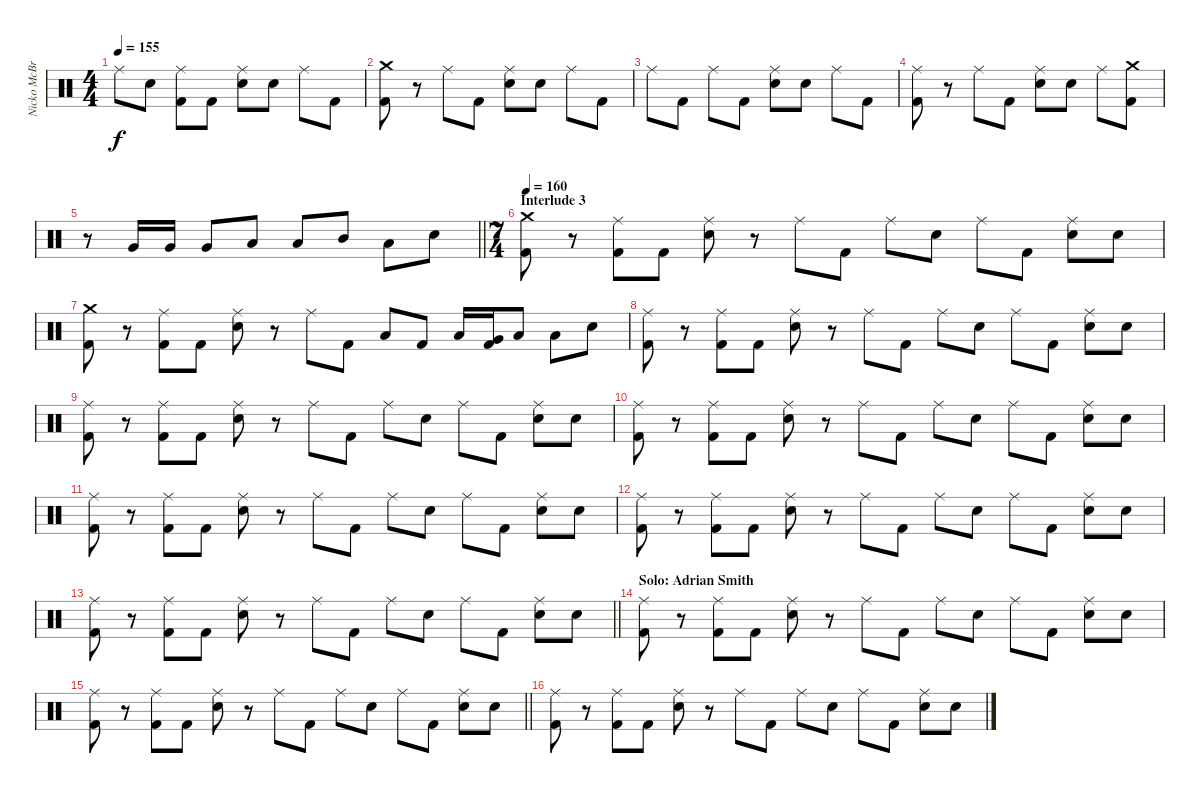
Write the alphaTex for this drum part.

\track ("Nicko McBrain" "Nicko McBr") {instrument percussion}
\staff {score}
\articulation defaults
\ts (4 4)
\tempo 155
\clef neutral
\ks c "Ride (middle)".8{dy f} "Snare (hit) 2".8
("Ride (middle)" "Kick (hit) 2").8 "Kick (hit) 2".8 ("Ride (middle)" "Snare (hit) 2").8 "Snare (hit) 2".8 "Ride (middle)".8 "Kick (hit) 2".8 |
("Crash medium (hit)" "Kick (hit) 2").8 r.8 "Ride (middle)".8 "Kick (hit) 2".8 ("Ride (middle)" "Snare (hit) 2").8 "Snare (hit) 2".8 "Ride (middle)".8 "Kick (hit) 2".8 |
"Ride (middle)".8 "Kick (hit) 2".8 "Ride (middle)".8 "Kick (hit) 2".8 ("Ride (middle)" "Snare (hit) 2").8 "Snare (hit) 2".8 "Ride (middle)".8 "Kick (hit) 2".8 |
("Ride (middle)" "Kick (hit) 2").8 r.8 "Ride (middle)".8 "Kick (hit) 2".8 ("Ride (middle)" "Snare (hit) 2").8 "Snare (hit) 2".8 "Ride (middle)".8 ("Crash medium (hit)" "Kick (hit) 2").8 |
\barLineRight lightlight
r.8 "Very Low Tom (hit)".16 "Very Low Tom (hit)".16 "Very Low Tom (hit)".8 "Low Tom (hit)".8 "Low Tom (hit)".8 "Mid Tom (hit)".8 "Low Tom (hit)".8 "Snare (hit) 2".8 |
\ts (7 4)
\section ("" "Interlude 3")
\tempo 160
("Crash medium (hit)" "Kick (hit) 2").8 r.8 ("Ride (middle)" "Kick (hit) 2").8 "Kick (hit) 2".8 ("Ride (middle)" "Snare (hit) 2").8 r.8 "Ride (middle)".8 "Kick (hit) 2".8 "Ride (middle)".8 "Snare (hit) 2".8 "Ride (middle)".8 "Kick (hit) 2".8 ("Ride (middle)" "Snare (hit) 2").8 "Snare (hit) 2".8 |
("Crash medium (hit)" "Kick (hit) 2").8 r.8 ("Ride (middle)" "Kick (hit) 2").8 "Kick (hit) 2".8 ("Ride (middle)" "Snare (hit) 2").8 r.8 "Ride (middle)".8 "Kick (hit) 2".8 "Low Tom (hit)".8 "Kick (hit) 2".8 "Low Tom (hit)".16 ("Very Low Tom (hit)" "Kick (hit) 2").16 "Low Floor Tom (hit)".8 "Low Floor Tom (hit)".8 "Snare (hit) 2".8 |
("Ride (middle)" "Kick (hit) 2").8 r.8 ("Ride (middle)" "Kick (hit) 2").8 "Kick (hit) 2".8 ("Ride (middle)" "Snare (hit) 2").8 r.8 "Ride (middle)".8 "Kick (hit) 2".8 "Ride (middle)".8 "Snare (hit) 2".8 "Ride (middle)".8 "Kick (hit) 2".8 ("Ride (middle)" "Snare (hit) 2").8 "Snare (hit) 2".8 |
("Ride (middle)" "Kick (hit) 2").8 r.8 ("Ride (middle)" "Kick (hit) 2").8 "Kick (hit) 2".8 ("Ride (middle)" "Snare (hit) 2").8 r.8 "Ride (middle)".8 "Kick (hit) 2".8 "Ride (middle)".8 "Snare (hit) 2".8 "Ride (middle)".8 "Kick (hit) 2".8 ("Ride (middle)" "Snare (hit) 2").8 "Snare (hit) 2".8 |
("Ride (middle)" "Kick (hit) 2").8 r.8 ("Ride (middle)" "Kick (hit) 2").8 "Kick (hit) 2".8 ("Ride (middle)" "Snare (hit) 2").8 r.8 "Ride (middle)".8 "Kick (hit) 2".8 "Ride (middle)".8 "Snare (hit) 2".8 "Ride (middle)".8 "Kick (hit) 2".8 ("Ride (middle)" "Snare (hit) 2").8 "Snare (hit) 2".8 |
("Ride (middle)" "Kick (hit) 2").8 r.8 ("Ride (middle)" "Kick (hit) 2").8 "Kick (hit) 2".8 ("Ride (middle)" "Snare (hit) 2").8 r.8 "Ride (middle)".8 "Kick (hit) 2".8 "Ride (middle)".8 "Snare (hit) 2".8 "Ride (middle)".8 "Kick (hit) 2".8 ("Ride (middle)" "Snare (hit) 2").8 "Snare (hit) 2".8 |
("Ride (middle)" "Kick (hit) 2").8 r.8 ("Ride (middle)" "Kick (hit) 2").8 "Kick (hit) 2".8 ("Ride (middle)" "Snare (hit) 2").8 r.8 "Ride (middle)".8 "Kick (hit) 2".8 "Ride (middle)".8 "Snare (hit) 2".8 "Ride (middle)".8 "Kick (hit) 2".8 ("Ride (middle)" "Snare (hit) 2").8 "Snare (hit) 2".8 |
\barLineRight lightlight
("Ride (middle)" "Kick (hit) 2").8 r.8 ("Ride (middle)" "Kick (hit) 2").8 "Kick (hit) 2".8 ("Ride (middle)" "Snare (hit) 2").8 r.8 "Ride (middle)".8 "Kick (hit) 2".8 "Ride (middle)".8 "Snare (hit) 2".8 "Ride (middle)".8 "Kick (hit) 2".8 ("Ride (middle)" "Snare (hit) 2").8 "Snare (hit) 2".8 |
\section ("" "Solo: Adrian Smith")
("Ride (middle)" "Kick (hit) 2").8 r.8 ("Ride (middle)" "Kick (hit) 2").8 "Kick (hit) 2".8 ("Ride (middle)" "Snare (hit) 2").8 r.8 "Ride (middle)".8 "Kick (hit) 2".8 "Ride (middle)".8 "Snare (hit) 2".8 "Ride (middle)".8 "Kick (hit) 2".8 ("Ride (middle)" "Snare (hit) 2").8 "Snare (hit) 2".8 |
\barLineRight lightlight
("Ride (middle)" "Kick (hit) 2").8 r.8 ("Ride (middle)" "Kick (hit) 2").8 "Kick (hit) 2".8 ("Ride (middle)" "Snare (hit) 2").8 r.8 "Ride (middle)".8 "Kick (hit) 2".8 "Ride (middle)".8 "Snare (hit) 2".8 "Ride (middle)".8 "Kick (hit) 2".8 ("Ride (middle)" "Snare (hit) 2").8 "Snare (hit) 2".8 |
("Ride (middle)" "Kick (hit) 2").8 r.8 ("Ride (middle)" "Kick (hit) 2").8 "Kick (hit) 2".8 ("Ride (middle)" "Snare (hit) 2").8 r.8 "Ride (middle)".8 "Kick (hit) 2".8 "Ride (middle)".8 "Snare (hit) 2".8 "Ride (middle)".8 "Kick (hit) 2".8 ("Ride (middle)" "Snare (hit) 2").8 "Snare (hit) 2".8
